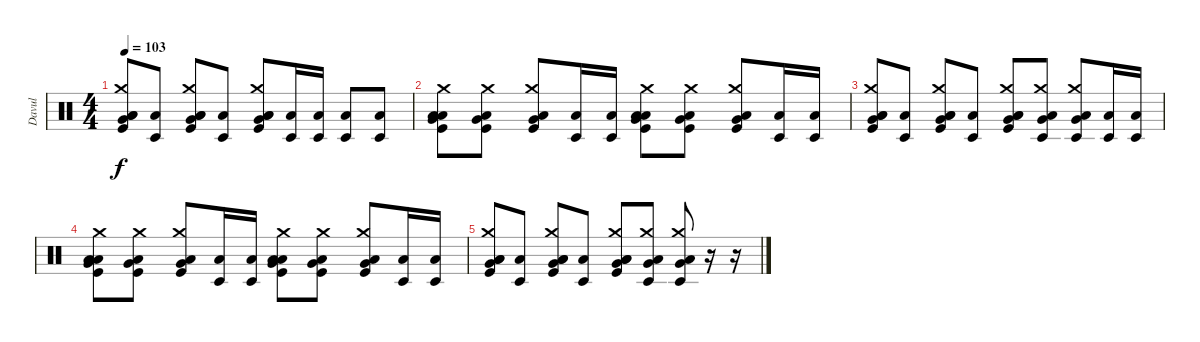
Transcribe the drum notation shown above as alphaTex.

\track ("Davul" "Davul") {instrument percussion}
\staff {score}
\articulation defaults
\ts (4 4)
\tempo 103
\clef neutral
\ks c
("Kick (hit)" "Low Tom (hit)" "Low Floor Tom (hit)" "Very Low Tom (hit)" "Crash medium (hit)").8{dy f} ("Timbale low (hit)" "Low Floor Tom (hit)").8 ("Kick (hit)" "Low Tom (hit)" "Low Floor Tom (hit)" "Very Low Tom (hit)" "Crash medium (hit)").8 ("Timbale low (hit)" "Low Floor Tom (hit)").8 ("Kick (hit)" "Low Tom (hit)" "Low Floor Tom (hit)" "Very Low Tom (hit)" "Crash medium (hit)").8 ("Timbale low (hit)" "Low Floor Tom (hit)").16 ("Timbale low (hit)" "Low Floor Tom (hit)").16 ("Timbale low (hit)" "Low Floor Tom (hit)").8 ("Timbale low (hit)" "Low Floor Tom (hit)").8 |
("Kick (hit)" "Low Tom (hit)" "Low Floor Tom (hit)" "Very Low Tom (hit)" "Crash medium (hit)").8 ("Kick (hit)" "Low Floor Tom (hit)" "Very Low Tom (hit)" "Crash medium (hit)").8 ("Kick (hit)" "Low Floor Tom (hit)" "Very Low Tom (hit)" "Crash medium (hit)").8 ("Timbale low (hit)" "Low Floor Tom (hit)").16 ("Timbale low (hit)" "Low Floor Tom (hit)").16 ("Kick (hit)" "Low Tom (hit)" "Low Floor Tom (hit)" "Very Low Tom (hit)" "Crash medium (hit)").8 ("Kick (hit)" "Very Low Tom (hit)" "Low Floor Tom (hit)" "Crash medium (hit)").8 ("Kick (hit)" "Very Low Tom (hit)" "Low Floor Tom (hit)" "Crash medium (hit)").8 ("Timbale low (hit)" "Low Floor Tom (hit)").16 ("Timbale low (hit)" "Low Floor Tom (hit)").16 |
("Kick (hit)" "Low Tom (hit)" "Low Floor Tom (hit)" "Very Low Tom (hit)" "Crash medium (hit)").8 ("Timbale low (hit)" "Low Floor Tom (hit)").8 ("Kick (hit)" "Low Tom (hit)" "Low Floor Tom (hit)" "Very Low Tom (hit)" "Crash medium (hit)").8 ("Timbale low (hit)" "Low Floor Tom (hit)").8 ("Kick (hit)" "Low Tom (hit)" "Low Floor Tom (hit)" "Very Low Tom (hit)" "Crash medium (hit)").8 ("Very Low Tom (hit)" "Timbale low (hit)" "Low Floor Tom (hit)" "Crash medium (hit)").8 ("Very Low Tom (hit)" "Timbale low (hit)" "Low Floor Tom (hit)" "Crash medium (hit)").8 ("Timbale low (hit)" "Low Floor Tom (hit)").16 ("Timbale low (hit)" "Low Floor Tom (hit)").16 |
("Kick (hit)" "Low Tom (hit)" "Low Floor Tom (hit)" "Very Low Tom (hit)" "Crash medium (hit)").8 ("Kick (hit)" "Low Floor Tom (hit)" "Very Low Tom (hit)" "Crash medium (hit)").8 ("Kick (hit)" "Low Floor Tom (hit)" "Very Low Tom (hit)" "Crash medium (hit)").8 ("Timbale low (hit)" "Low Floor Tom (hit)").16 ("Timbale low (hit)" "Low Floor Tom (hit)").16 ("Kick (hit)" "Low Tom (hit)" "Low Floor Tom (hit)" "Very Low Tom (hit)" "Crash medium (hit)").8 ("Kick (hit)" "Very Low Tom (hit)" "Low Floor Tom (hit)" "Crash medium (hit)").8 ("Kick (hit)" "Very Low Tom (hit)" "Low Floor Tom (hit)" "Crash medium (hit)").8 ("Timbale low (hit)" "Low Floor Tom (hit)").16 ("Timbale low (hit)" "Low Floor Tom (hit)").16 |
("Kick (hit)" "Low Tom (hit)" "Low Floor Tom (hit)" "Very Low Tom (hit)" "Crash medium (hit)").8 ("Timbale low (hit)" "Low Floor Tom (hit)").8 ("Kick (hit)" "Low Tom (hit)" "Low Floor Tom (hit)" "Very Low Tom (hit)" "Crash medium (hit)").8 ("Timbale low (hit)" "Low Floor Tom (hit)").8 ("Kick (hit)" "Low Tom (hit)" "Low Floor Tom (hit)" "Very Low Tom (hit)" "Crash medium (hit)").8 ("Very Low Tom (hit)" "Timbale low (hit)" "Low Floor Tom (hit)" "Crash medium (hit)").8 ("Very Low Tom (hit)" "Timbale low (hit)" "Low Floor Tom (hit)" "Crash medium (hit)").8 r.16 r.16
